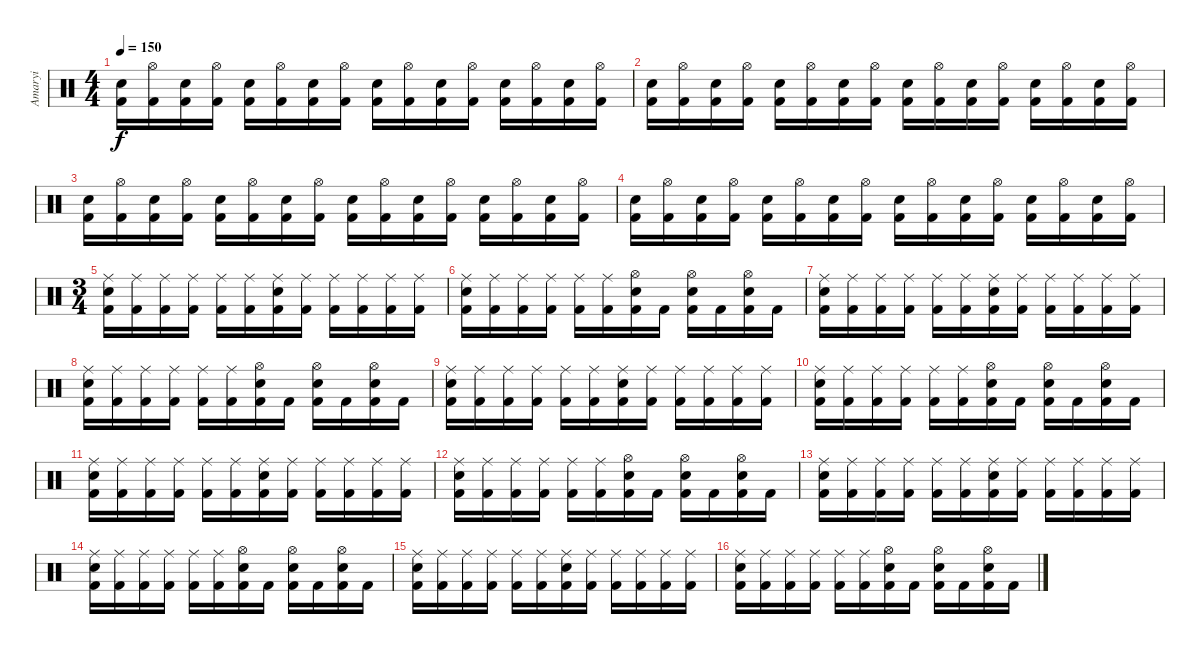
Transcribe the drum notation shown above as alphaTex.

\track ("Amaryi" "Amaryi") {instrument percussion}
\staff {score}
\articulation defaults
\ts (4 4)
\tempo 150
\clef neutral
\ks c
("Snare (hit) 2" "Kick (hit) 2").16{dy f} ("Hi-Hat (open)" "Kick (hit) 2").16 ("Snare (hit) 2" "Kick (hit) 2").16 ("Hi-Hat (open)" "Kick (hit) 2").16 ("Snare (hit) 2" "Kick (hit) 2").16 ("Hi-Hat (open)" "Kick (hit) 2").16 ("Snare (hit) 2" "Kick (hit) 2").16 ("Hi-Hat (open)" "Kick (hit) 2").16 ("Snare (hit) 2" "Kick (hit) 2").16 ("Hi-Hat (open)" "Kick (hit) 2").16 ("Snare (hit) 2" "Kick (hit) 2").16 ("Hi-Hat (open)" "Kick (hit) 2").16 ("Snare (hit) 2" "Kick (hit) 2").16 ("Hi-Hat (open)" "Kick (hit) 2").16 ("Snare (hit) 2" "Kick (hit) 2").16 ("Hi-Hat (open)" "Kick (hit) 2").16 |
("Snare (hit) 2" "Kick (hit) 2").16 ("Hi-Hat (open)" "Kick (hit) 2").16 ("Snare (hit) 2" "Kick (hit) 2").16 ("Hi-Hat (open)" "Kick (hit) 2").16 ("Snare (hit) 2" "Kick (hit) 2").16 ("Hi-Hat (open)" "Kick (hit) 2").16 ("Snare (hit) 2" "Kick (hit) 2").16 ("Hi-Hat (open)" "Kick (hit) 2").16 ("Snare (hit) 2" "Kick (hit) 2").16 ("Hi-Hat (open)" "Kick (hit) 2").16 ("Snare (hit) 2" "Kick (hit) 2").16 ("Hi-Hat (open)" "Kick (hit) 2").16 ("Snare (hit) 2" "Kick (hit) 2").16 ("Hi-Hat (open)" "Kick (hit) 2").16 ("Snare (hit) 2" "Kick (hit) 2").16 ("Hi-Hat (open)" "Kick (hit) 2").16 |
("Snare (hit) 2" "Kick (hit) 2").16 ("Hi-Hat (open)" "Kick (hit) 2").16 ("Snare (hit) 2" "Kick (hit) 2").16 ("Hi-Hat (open)" "Kick (hit) 2").16 ("Snare (hit) 2" "Kick (hit) 2").16 ("Hi-Hat (open)" "Kick (hit) 2").16 ("Snare (hit) 2" "Kick (hit) 2").16 ("Hi-Hat (open)" "Kick (hit) 2").16 ("Snare (hit) 2" "Kick (hit) 2").16 ("Hi-Hat (open)" "Kick (hit) 2").16 ("Snare (hit) 2" "Kick (hit) 2").16 ("Hi-Hat (open)" "Kick (hit) 2").16 ("Snare (hit) 2" "Kick (hit) 2").16 ("Hi-Hat (open)" "Kick (hit) 2").16 ("Snare (hit) 2" "Kick (hit) 2").16 ("Hi-Hat (open)" "Kick (hit) 2").16 |
("Snare (hit) 2" "Kick (hit) 2").16 ("Hi-Hat (open)" "Kick (hit) 2").16 ("Snare (hit) 2" "Kick (hit) 2").16 ("Hi-Hat (open)" "Kick (hit) 2").16 ("Snare (hit) 2" "Kick (hit) 2").16 ("Hi-Hat (open)" "Kick (hit) 2").16 ("Snare (hit) 2" "Kick (hit) 2").16 ("Hi-Hat (open)" "Kick (hit) 2").16 ("Snare (hit) 2" "Kick (hit) 2").16 ("Hi-Hat (open)" "Kick (hit) 2").16 ("Snare (hit) 2" "Kick (hit) 2").16 ("Hi-Hat (open)" "Kick (hit) 2").16 ("Snare (hit) 2" "Kick (hit) 2").16 ("Hi-Hat (open)" "Kick (hit) 2").16 ("Snare (hit) 2" "Kick (hit) 2").16 ("Hi-Hat (open)" "Kick (hit) 2").16 |
\ts (3 4)
("Ride (middle)" "Snare (hit) 2" "Kick (hit) 2").16 ("Ride (middle)" "Kick (hit) 2").16 ("Ride (middle)" "Kick (hit) 2").16 ("Ride (middle)" "Kick (hit) 2").16 ("Ride (middle)" "Kick (hit) 2").16 ("Ride (middle)" "Kick (hit) 2").16 ("Ride (middle)" "Snare (hit) 2" "Kick (hit) 2").16 ("Ride (middle)" "Kick (hit) 2").16 ("Ride (middle)" "Kick (hit) 2").16 ("Ride (middle)" "Kick (hit) 2").16 ("Ride (middle)" "Kick (hit) 2").16 ("Ride (middle)" "Kick (hit) 2").16 |
("Ride (middle)" "Snare (hit) 2" "Kick (hit) 2").16 ("Ride (middle)" "Kick (hit) 2").16 ("Ride (middle)" "Kick (hit) 2").16 ("Ride (middle)" "Kick (hit) 2").16 ("Ride (middle)" "Kick (hit) 2").16 ("Ride (middle)" "Kick (hit) 2").16 ("Hi-Hat (open)" "Snare (hit) 2" "Kick (hit) 2").16 "Kick (hit) 2".16 ("Hi-Hat (open)" "Snare (hit) 2" "Kick (hit) 2").16 "Kick (hit) 2".16 ("Hi-Hat (open)" "Snare (hit) 2" "Kick (hit) 2").16 "Kick (hit) 2".16 |
("Ride (middle)" "Snare (hit) 2" "Kick (hit) 2").16 ("Ride (middle)" "Kick (hit) 2").16 ("Ride (middle)" "Kick (hit) 2").16 ("Ride (middle)" "Kick (hit) 2").16 ("Ride (middle)" "Kick (hit) 2").16 ("Ride (middle)" "Kick (hit) 2").16 ("Ride (middle)" "Snare (hit) 2" "Kick (hit) 2").16 ("Ride (middle)" "Kick (hit) 2").16 ("Ride (middle)" "Kick (hit) 2").16 ("Ride (middle)" "Kick (hit) 2").16 ("Ride (middle)" "Kick (hit) 2").16 ("Ride (middle)" "Kick (hit) 2").16 |
("Ride (middle)" "Snare (hit) 2" "Kick (hit) 2").16 ("Ride (middle)" "Kick (hit) 2").16 ("Ride (middle)" "Kick (hit) 2").16 ("Ride (middle)" "Kick (hit) 2").16 ("Ride (middle)" "Kick (hit) 2").16 ("Ride (middle)" "Kick (hit) 2").16 ("Hi-Hat (open)" "Snare (hit) 2" "Kick (hit) 2").16 "Kick (hit) 2".16 ("Hi-Hat (open)" "Snare (hit) 2" "Kick (hit) 2").16 "Kick (hit) 2".16 ("Hi-Hat (open)" "Snare (hit) 2" "Kick (hit) 2").16 "Kick (hit) 2".16 |
("Ride (middle)" "Snare (hit) 2" "Kick (hit) 2").16 ("Ride (middle)" "Kick (hit) 2").16 ("Ride (middle)" "Kick (hit) 2").16 ("Ride (middle)" "Kick (hit) 2").16 ("Ride (middle)" "Kick (hit) 2").16 ("Ride (middle)" "Kick (hit) 2").16 ("Ride (middle)" "Snare (hit) 2" "Kick (hit) 2").16 ("Ride (middle)" "Kick (hit) 2").16 ("Ride (middle)" "Kick (hit) 2").16 ("Ride (middle)" "Kick (hit) 2").16 ("Ride (middle)" "Kick (hit) 2").16 ("Ride (middle)" "Kick (hit) 2").16 |
("Ride (middle)" "Snare (hit) 2" "Kick (hit) 2").16 ("Ride (middle)" "Kick (hit) 2").16 ("Ride (middle)" "Kick (hit) 2").16 ("Ride (middle)" "Kick (hit) 2").16 ("Ride (middle)" "Kick (hit) 2").16 ("Ride (middle)" "Kick (hit) 2").16 ("Hi-Hat (open)" "Snare (hit) 2" "Kick (hit) 2").16 "Kick (hit) 2".16 ("Hi-Hat (open)" "Snare (hit) 2" "Kick (hit) 2").16 "Kick (hit) 2".16 ("Hi-Hat (open)" "Snare (hit) 2" "Kick (hit) 2").16 "Kick (hit) 2".16 |
("Ride (middle)" "Snare (hit) 2" "Kick (hit) 2").16 ("Ride (middle)" "Kick (hit) 2").16 ("Ride (middle)" "Kick (hit) 2").16 ("Ride (middle)" "Kick (hit) 2").16 ("Ride (middle)" "Kick (hit) 2").16 ("Ride (middle)" "Kick (hit) 2").16 ("Ride (middle)" "Snare (hit) 2" "Kick (hit) 2").16 ("Ride (middle)" "Kick (hit) 2").16 ("Ride (middle)" "Kick (hit) 2").16 ("Ride (middle)" "Kick (hit) 2").16 ("Ride (middle)" "Kick (hit) 2").16 ("Ride (middle)" "Kick (hit) 2").16 |
("Ride (middle)" "Snare (hit) 2" "Kick (hit) 2").16 ("Ride (middle)" "Kick (hit) 2").16 ("Ride (middle)" "Kick (hit) 2").16 ("Ride (middle)" "Kick (hit) 2").16 ("Ride (middle)" "Kick (hit) 2").16 ("Ride (middle)" "Kick (hit) 2").16 ("Hi-Hat (open)" "Snare (hit) 2" "Kick (hit) 2").16 "Kick (hit) 2".16 ("Hi-Hat (open)" "Snare (hit) 2" "Kick (hit) 2").16 "Kick (hit) 2".16 ("Hi-Hat (open)" "Snare (hit) 2" "Kick (hit) 2").16 "Kick (hit) 2".16 |
("Ride (middle)" "Snare (hit) 2" "Kick (hit) 2").16 ("Ride (middle)" "Kick (hit) 2").16 ("Ride (middle)" "Kick (hit) 2").16 ("Ride (middle)" "Kick (hit) 2").16 ("Ride (middle)" "Kick (hit) 2").16 ("Ride (middle)" "Kick (hit) 2").16 ("Ride (middle)" "Snare (hit) 2" "Kick (hit) 2").16 ("Ride (middle)" "Kick (hit) 2").16 ("Ride (middle)" "Kick (hit) 2").16 ("Ride (middle)" "Kick (hit) 2").16 ("Ride (middle)" "Kick (hit) 2").16 ("Ride (middle)" "Kick (hit) 2").16 |
("Ride (middle)" "Snare (hit) 2" "Kick (hit) 2").16 ("Ride (middle)" "Kick (hit) 2").16 ("Ride (middle)" "Kick (hit) 2").16 ("Ride (middle)" "Kick (hit) 2").16 ("Ride (middle)" "Kick (hit) 2").16 ("Ride (middle)" "Kick (hit) 2").16 ("Hi-Hat (open)" "Snare (hit) 2" "Kick (hit) 2").16 "Kick (hit) 2".16 ("Hi-Hat (open)" "Snare (hit) 2" "Kick (hit) 2").16 "Kick (hit) 2".16 ("Hi-Hat (open)" "Snare (hit) 2" "Kick (hit) 2").16 "Kick (hit) 2".16 |
("Ride (middle)" "Snare (hit) 2" "Kick (hit) 2").16 ("Ride (middle)" "Kick (hit) 2").16 ("Ride (middle)" "Kick (hit) 2").16 ("Ride (middle)" "Kick (hit) 2").16 ("Ride (middle)" "Kick (hit) 2").16 ("Ride (middle)" "Kick (hit) 2").16 ("Ride (middle)" "Snare (hit) 2" "Kick (hit) 2").16 ("Ride (middle)" "Kick (hit) 2").16 ("Ride (middle)" "Kick (hit) 2").16 ("Ride (middle)" "Kick (hit) 2").16 ("Ride (middle)" "Kick (hit) 2").16 ("Ride (middle)" "Kick (hit) 2").16 |
("Ride (middle)" "Snare (hit) 2" "Kick (hit) 2").16 ("Ride (middle)" "Kick (hit) 2").16 ("Ride (middle)" "Kick (hit) 2").16 ("Ride (middle)" "Kick (hit) 2").16 ("Ride (middle)" "Kick (hit) 2").16 ("Ride (middle)" "Kick (hit) 2").16 ("Hi-Hat (open)" "Snare (hit) 2" "Kick (hit) 2").16 "Kick (hit) 2".16 ("Hi-Hat (open)" "Snare (hit) 2" "Kick (hit) 2").16 "Kick (hit) 2".16 ("Hi-Hat (open)" "Snare (hit) 2" "Kick (hit) 2").16 "Kick (hit) 2".16
